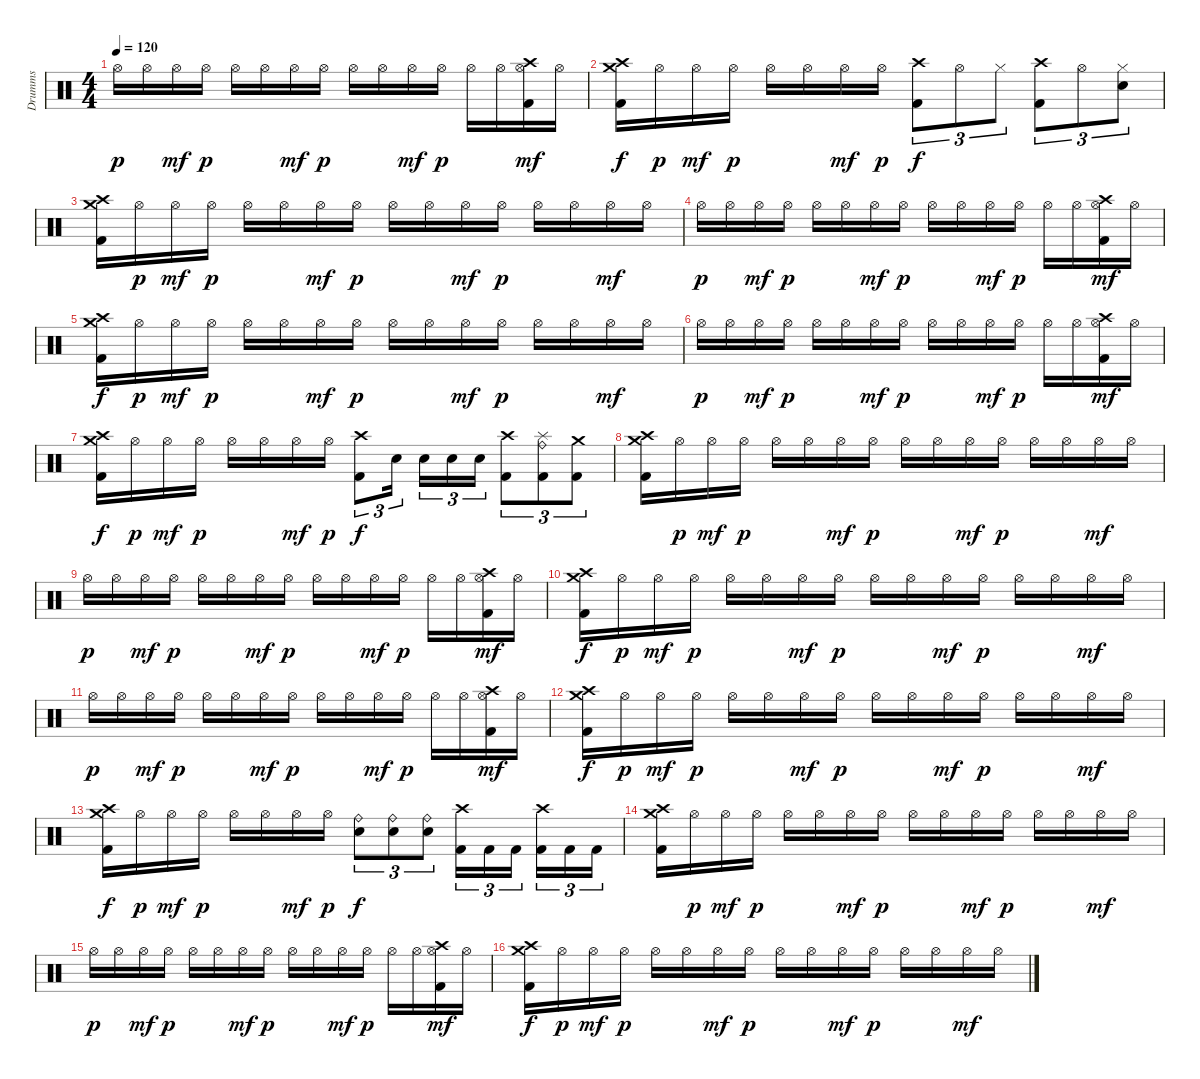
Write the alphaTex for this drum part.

\track ("Drumms" "Drumms") {instrument percussion}
\staff {score}
\articulation defaults
\ts (4 4)
\tempo 120
\clef neutral
\ks c "Hi-Hat (open)".16{dy p} "Hi-Hat (open)".16 "Hi-Hat (open)".16{dy mf} "Hi-Hat (open)".16{dy p} "Hi-Hat (open)".16 "Hi-Hat (open)".16 "Hi-Hat (open)".16{dy mf} "Hi-Hat (open)".16{dy p} "Hi-Hat (open)".16 "Hi-Hat (open)".16 "Hi-Hat (open)".16{dy mf} "Hi-Hat (open)".16{dy p} "Hi-Hat (open)".16 "Hi-Hat (open)".16
("Crash high (hit)" "Hi-Hat (open)" "Kick (hit) 2").16{dy mf} "Hi-Hat (open)".16 |
("Crash high (hit)" "Crash medium (hit)" "Kick (hit) 2").16{dy f} "Hi-Hat (open)".16{dy p} "Hi-Hat (open)".16{dy mf} "Hi-Hat (open)".16{dy p} "Hi-Hat (open)".16 "Hi-Hat (open)".16 "Hi-Hat (open)".16{dy mf} "Hi-Hat (open)".16{dy p} ("Crash high (hit)" "Kick (hit) 2").8{tu (3 2) dy f} "Hi-Hat (open)".8{tu (3 2)} "Hi-Hat (closed)".8{tu (3 2)} ("Crash high (hit)" "Kick (hit) 2").8{tu (3 2)} "Hi-Hat (open)".8{tu (3 2)} ("Hi-Hat (closed)" "Electric Snare (hit)").8{tu (3 2)} |
("Crash high (hit)" "Crash medium (hit)" "Kick (hit) 2").16 "Hi-Hat (open)".16{dy p} "Hi-Hat (open)".16{dy mf} "Hi-Hat (open)".16{dy p} "Hi-Hat (open)".16 "Hi-Hat (open)".16 "Hi-Hat (open)".16{dy mf} "Hi-Hat (open)".16{dy p} "Hi-Hat (open)".16 "Hi-Hat (open)".16 "Hi-Hat (open)".16{dy mf} "Hi-Hat (open)".16{dy p} "Hi-Hat (open)".16 "Hi-Hat (open)".16 "Hi-Hat (open)".16{dy mf} "Hi-Hat (open)".16 |
"Hi-Hat (open)".16{dy p} "Hi-Hat (open)".16 "Hi-Hat (open)".16{dy mf} "Hi-Hat (open)".16{dy p} "Hi-Hat (open)".16 "Hi-Hat (open)".16 "Hi-Hat (open)".16{dy mf} "Hi-Hat (open)".16{dy p} "Hi-Hat (open)".16 "Hi-Hat (open)".16 "Hi-Hat (open)".16{dy mf} "Hi-Hat (open)".16{dy p} "Hi-Hat (open)".16 "Hi-Hat (open)".16 ("Crash high (hit)" "Hi-Hat (open)" "Kick (hit) 2").16{dy mf} "Hi-Hat (open)".16 |
("Crash high (hit)" "Crash medium (hit)" "Kick (hit) 2").16{dy f} "Hi-Hat (open)".16{dy p} "Hi-Hat (open)".16{dy mf} "Hi-Hat (open)".16{dy p} "Hi-Hat (open)".16 "Hi-Hat (open)".16 "Hi-Hat (open)".16{dy mf} "Hi-Hat (open)".16{dy p} "Hi-Hat (open)".16 "Hi-Hat (open)".16 "Hi-Hat (open)".16{dy mf} "Hi-Hat (open)".16{dy p} "Hi-Hat (open)".16 "Hi-Hat (open)".16 "Hi-Hat (open)".16{dy mf} "Hi-Hat (open)".16 |
"Hi-Hat (open)".16{dy p} "Hi-Hat (open)".16 "Hi-Hat (open)".16{dy mf} "Hi-Hat (open)".16{dy p} "Hi-Hat (open)".16 "Hi-Hat (open)".16 "Hi-Hat (open)".16{dy mf} "Hi-Hat (open)".16{dy p} "Hi-Hat (open)".16 "Hi-Hat (open)".16 "Hi-Hat (open)".16{dy mf} "Hi-Hat (open)".16{dy p} "Hi-Hat (open)".16 "Hi-Hat (open)".16 ("Crash high (hit)" "Hi-Hat (open)" "Kick (hit) 2").16{dy mf} "Hi-Hat (open)".16 |
("Crash high (hit)" "Crash medium (hit)" "Kick (hit) 2").16{dy f} "Hi-Hat (open)".16{dy p} "Hi-Hat (open)".16{dy mf} "Hi-Hat (open)".16{dy p} "Hi-Hat (open)".16 "Hi-Hat (open)".16 "Hi-Hat (open)".16{dy mf} "Hi-Hat (open)".16{dy p} ("Crash high (hit)" "Kick (hit) 2").8{tu (3 2) dy f} "Electric Snare (hit)".16{tu (3 2)} "Electric Snare (hit)".16{tu (3 2)} "Electric Snare (hit)".16{tu (3 2)} "Electric Snare (hit)".16{tu (3 2)} ("Crash high (hit)" "Kick (hit) 2").8{tu (3 2)} ("Splash (hit)" "Ride (bell)" "Kick (hit) 2").8{tu (3 2)} ("Crash medium (hit)" "Kick (hit) 2").8{tu (3 2)} |
("Crash high (hit)" "Crash medium (hit)" "Kick (hit) 2").16 "Hi-Hat (open)".16{dy p} "Hi-Hat (open)".16{dy mf} "Hi-Hat (open)".16{dy p} "Hi-Hat (open)".16 "Hi-Hat (open)".16 "Hi-Hat (open)".16{dy mf} "Hi-Hat (open)".16{dy p} "Hi-Hat (open)".16 "Hi-Hat (open)".16 "Hi-Hat (open)".16{dy mf} "Hi-Hat (open)".16{dy p} "Hi-Hat (open)".16 "Hi-Hat (open)".16 "Hi-Hat (open)".16{dy mf} "Hi-Hat (open)".16 |
"Hi-Hat (open)".16{dy p} "Hi-Hat (open)".16 "Hi-Hat (open)".16{dy mf} "Hi-Hat (open)".16{dy p} "Hi-Hat (open)".16 "Hi-Hat (open)".16 "Hi-Hat (open)".16{dy mf} "Hi-Hat (open)".16{dy p} "Hi-Hat (open)".16 "Hi-Hat (open)".16 "Hi-Hat (open)".16{dy mf} "Hi-Hat (open)".16{dy p} "Hi-Hat (open)".16 "Hi-Hat (open)".16 ("Crash high (hit)" "Hi-Hat (open)" "Kick (hit) 2").16{dy mf} "Hi-Hat (open)".16 |
("Crash high (hit)" "Crash medium (hit)" "Kick (hit) 2").16{dy f} "Hi-Hat (open)".16{dy p} "Hi-Hat (open)".16{dy mf} "Hi-Hat (open)".16{dy p} "Hi-Hat (open)".16 "Hi-Hat (open)".16 "Hi-Hat (open)".16{dy mf} "Hi-Hat (open)".16{dy p} "Hi-Hat (open)".16 "Hi-Hat (open)".16 "Hi-Hat (open)".16{dy mf} "Hi-Hat (open)".16{dy p} "Hi-Hat (open)".16 "Hi-Hat (open)".16 "Hi-Hat (open)".16{dy mf} "Hi-Hat (open)".16 |
"Hi-Hat (open)".16{dy p} "Hi-Hat (open)".16 "Hi-Hat (open)".16{dy mf} "Hi-Hat (open)".16{dy p} "Hi-Hat (open)".16 "Hi-Hat (open)".16 "Hi-Hat (open)".16{dy mf} "Hi-Hat (open)".16{dy p} "Hi-Hat (open)".16 "Hi-Hat (open)".16 "Hi-Hat (open)".16{dy mf} "Hi-Hat (open)".16{dy p} "Hi-Hat (open)".16 "Hi-Hat (open)".16 ("Crash high (hit)" "Hi-Hat (open)" "Kick (hit) 2").16{dy mf} "Hi-Hat (open)".16 |
("Crash high (hit)" "Crash medium (hit)" "Kick (hit) 2").16{dy f} "Hi-Hat (open)".16{dy p} "Hi-Hat (open)".16{dy mf} "Hi-Hat (open)".16{dy p} "Hi-Hat (open)".16 "Hi-Hat (open)".16 "Hi-Hat (open)".16{dy mf} "Hi-Hat (open)".16{dy p} "Hi-Hat (open)".16 "Hi-Hat (open)".16 "Hi-Hat (open)".16{dy mf} "Hi-Hat (open)".16{dy p} "Hi-Hat (open)".16 "Hi-Hat (open)".16 "Hi-Hat (open)".16{dy mf} "Hi-Hat (open)".16 |
("Crash high (hit)" "Crash medium (hit)" "Kick (hit) 2").16{dy f} "Hi-Hat (open)".16{dy p} "Hi-Hat (open)".16{dy mf} "Hi-Hat (open)".16{dy p} "Hi-Hat (open)".16 "Hi-Hat (open)".16 "Hi-Hat (open)".16{dy mf} "Hi-Hat (open)".16{dy p} ("Ride (bell)" "Electric Snare (hit)").8{tu (3 2) dy f} ("Ride (bell)" "Electric Snare (hit)").8{tu (3 2)} ("Ride (bell)" "Electric Snare (hit)").8{tu (3 2)} ("Crash high (hit)" "Kick (hit) 2").16{tu (3 2)} "Kick (hit) 2".16{tu (3 2)} "Kick (hit) 2".16{tu (3 2)} ("Crash high (hit)" "Kick (hit) 2").16{tu (3 2)} "Kick (hit) 2".16{tu (3 2)} "Kick (hit) 2".16{tu (3 2)} |
("Crash high (hit)" "Crash medium (hit)" "Kick (hit) 2").16 "Hi-Hat (open)".16{dy p} "Hi-Hat (open)".16{dy mf} "Hi-Hat (open)".16{dy p} "Hi-Hat (open)".16 "Hi-Hat (open)".16 "Hi-Hat (open)".16{dy mf} "Hi-Hat (open)".16{dy p} "Hi-Hat (open)".16 "Hi-Hat (open)".16 "Hi-Hat (open)".16{dy mf} "Hi-Hat (open)".16{dy p} "Hi-Hat (open)".16 "Hi-Hat (open)".16 "Hi-Hat (open)".16{dy mf} "Hi-Hat (open)".16 |
"Hi-Hat (open)".16{dy p} "Hi-Hat (open)".16 "Hi-Hat (open)".16{dy mf} "Hi-Hat (open)".16{dy p} "Hi-Hat (open)".16 "Hi-Hat (open)".16 "Hi-Hat (open)".16{dy mf} "Hi-Hat (open)".16{dy p} "Hi-Hat (open)".16 "Hi-Hat (open)".16 "Hi-Hat (open)".16{dy mf} "Hi-Hat (open)".16{dy p} "Hi-Hat (open)".16 "Hi-Hat (open)".16 ("Crash high (hit)" "Hi-Hat (open)" "Kick (hit) 2").16{dy mf} "Hi-Hat (open)".16 |
("Crash high (hit)" "Crash medium (hit)" "Kick (hit) 2").16{dy f} "Hi-Hat (open)".16{dy p} "Hi-Hat (open)".16{dy mf} "Hi-Hat (open)".16{dy p} "Hi-Hat (open)".16 "Hi-Hat (open)".16 "Hi-Hat (open)".16{dy mf} "Hi-Hat (open)".16{dy p} "Hi-Hat (open)".16 "Hi-Hat (open)".16 "Hi-Hat (open)".16{dy mf} "Hi-Hat (open)".16{dy p} "Hi-Hat (open)".16 "Hi-Hat (open)".16 "Hi-Hat (open)".16{dy mf} "Hi-Hat (open)".16
